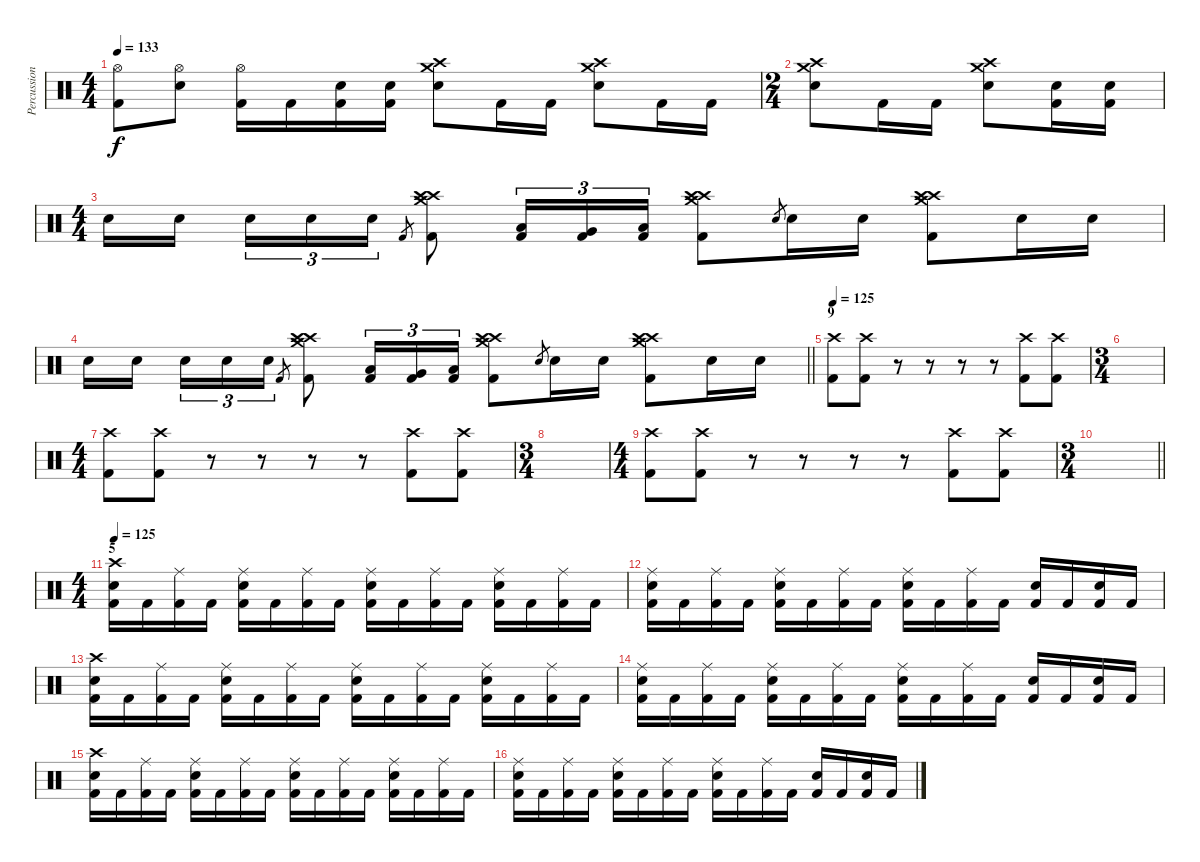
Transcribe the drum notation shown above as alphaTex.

\track ("Percussion" "Percussion") {instrument percussion}
\staff {score}
\articulation defaults
\ts (4 4)
\tempo 133
\clef neutral
\ks c
("Hi-Hat (open)" "Kick (hit) 2").8{dy f} ("Hi-Hat (open)" "Snare (hit) 2").8 ("Hi-Hat (open)" "Kick (hit) 2").16 "Kick (hit) 2".16 ("Snare (hit) 2" "Kick (hit) 2").16 ("Snare (hit) 2" "Kick (hit) 2").16 ("Crash medium (hit)" "Crash high (hit)" "Snare (hit) 2").8 "Kick (hit) 2".16 "Kick (hit) 2".16 ("Crash high (hit)" "Crash medium (hit)" "Snare (hit) 2").8 "Kick (hit) 2".16 "Kick (hit) 2".16 |
\ts (2 4)
("Crash high (hit)" "Crash medium (hit)" "Snare (hit) 2").8 "Kick (hit) 2".16 "Kick (hit) 2".16 ("Crash medium (hit)" "Crash high (hit)" "Snare (hit) 2").8 ("Snare (hit) 2" "Kick (hit) 2").16 ("Snare (hit) 2" "Kick (hit) 2").16 |
\ts (4 4)
"Snare (hit) 2".16 "Snare (hit) 2".16{beam splitsecondary} "Snare (hit) 2".16{tu (3 2)} "Snare (hit) 2".16{tu (3 2)} "Snare (hit) 2".16{tu (3 2)} "Kick (hit) 2".8{gr} ("Crash high (hit)" "Crash medium (hit)" "Crash high (hit)" "Kick (hit) 2").8 ("Low Tom (hit)" "Kick (hit) 2").16{tu (3 2)} ("Very Low Tom (hit)" "Kick (hit) 2").16{tu (3 2)} ("Low Floor Tom (hit)" "Kick (hit) 2").16{tu (3 2)} ("Crash high (hit)" "Crash medium (hit)" "Crash high (hit)" "Kick (hit) 2").8 "Snare (hit) 2".8{gr} "Snare (hit) 2".16 "Snare (hit) 2".16 ("Crash high (hit)" "Crash medium (hit)" "Crash high (hit)" "Kick (hit) 2").8 "Snare (hit) 2".16 "Snare (hit) 2".16 |
\barLineRight lightlight "Snare (hit) 2".16 "Snare (hit) 2".16{beam splitsecondary} "Snare (hit) 2".16{tu (3 2)} "Snare (hit) 2".16{tu (3 2)} "Snare (hit) 2".16{tu (3 2)} "Kick (hit) 2".8{gr}
("Crash high (hit)" "Crash medium (hit)" "Crash high (hit)" "Kick (hit) 2").8 ("Low Tom (hit)" "Kick (hit) 2").16{tu (3 2)} ("Very Low Tom (hit)" "Kick (hit) 2").16{tu (3 2)} ("Low Floor Tom (hit)" "Kick (hit) 2").16{tu (3 2)} ("Crash high (hit)" "Crash medium (hit)" "Crash high (hit)" "Kick (hit) 2").8 "Snare (hit) 2".8{gr} "Snare (hit) 2".16 "Snare (hit) 2".16 ("Crash high (hit)" "Crash medium (hit)" "Crash high (hit)" "Kick (hit) 2").8 "Snare (hit) 2".16 "Snare (hit) 2".16 |
\section ("" "9")
\tempo 125
("Crash high (hit)" "Kick (hit) 2").8 ("Crash high (hit)" "Kick (hit) 2").8 r.8 r.8 r.8 r.8 ("Crash high (hit)" "Kick (hit) 2").8 ("Crash high (hit)" "Kick (hit) 2").8 |
\ts (3 4)
|
\ts (4 4)
("Crash high (hit)" "Kick (hit) 2").8 ("Crash high (hit)" "Kick (hit) 2").8 r.8 r.8 r.8 r.8 ("Crash high (hit)" "Kick (hit) 2").8 ("Crash high (hit)" "Kick (hit) 2").8 |
\ts (3 4)
|
\ts (4 4)
("Crash high (hit)" "Kick (hit) 2").8 ("Crash high (hit)" "Kick (hit) 2").8 r.8 r.8 r.8 r.8 ("Crash high (hit)" "Kick (hit) 2").8 ("Crash high (hit)" "Kick (hit) 2").8 |
\ts (3 4)
\barLineRight lightlight
|
\ts (4 4)
\section ("" "5")
\tempo 125
("Crash high (hit)" "Snare (hit) 2" "Kick (hit) 2").16 "Kick (hit) 2".16 ("Ride (middle)" "Kick (hit) 2").16 "Kick (hit) 2".16 ("Ride (middle)" "Snare (hit) 2" "Kick (hit) 2").16 "Kick (hit) 2".16 ("Ride (middle)" "Kick (hit) 2").16 "Kick (hit) 2".16 ("Ride (middle)" "Snare (hit) 2" "Kick (hit) 2").16 "Kick (hit) 2".16 ("Ride (middle)" "Kick (hit) 2").16 "Kick (hit) 2".16 ("Ride (middle)" "Snare (hit) 2" "Kick (hit) 2").16 "Kick (hit) 2".16 ("Ride (middle)" "Kick (hit) 2").16 "Kick (hit) 2".16 |
("Ride (middle)" "Snare (hit) 2" "Kick (hit) 2").16 "Kick (hit) 2".16 ("Ride (middle)" "Kick (hit) 2").16 "Kick (hit) 2".16 ("Ride (middle)" "Snare (hit) 2" "Kick (hit) 2").16 "Kick (hit) 2".16 ("Ride (middle)" "Kick (hit) 2").16 "Kick (hit) 2".16 ("Ride (middle)" "Snare (hit) 2" "Kick (hit) 2").16 "Kick (hit) 2".16 ("Ride (middle)" "Kick (hit) 2").16 "Kick (hit) 2".16 ("Snare (hit) 2" "Kick (hit) 2").16 "Kick (hit) 2".16 ("Snare (hit) 2" "Kick (hit) 2").16 "Kick (hit) 2".16 |
("Crash high (hit)" "Snare (hit) 2" "Kick (hit) 2").16 "Kick (hit) 2".16 ("Ride (middle)" "Kick (hit) 2").16 "Kick (hit) 2".16 ("Ride (middle)" "Snare (hit) 2" "Kick (hit) 2").16 "Kick (hit) 2".16 ("Ride (middle)" "Kick (hit) 2").16 "Kick (hit) 2".16 ("Ride (middle)" "Snare (hit) 2" "Kick (hit) 2").16 "Kick (hit) 2".16 ("Ride (middle)" "Kick (hit) 2").16 "Kick (hit) 2".16 ("Ride (middle)" "Snare (hit) 2" "Kick (hit) 2").16 "Kick (hit) 2".16 ("Ride (middle)" "Kick (hit) 2").16 "Kick (hit) 2".16 |
("Ride (middle)" "Snare (hit) 2" "Kick (hit) 2").16 "Kick (hit) 2".16 ("Ride (middle)" "Kick (hit) 2").16 "Kick (hit) 2".16 ("Ride (middle)" "Snare (hit) 2" "Kick (hit) 2").16 "Kick (hit) 2".16 ("Ride (middle)" "Kick (hit) 2").16 "Kick (hit) 2".16 ("Ride (middle)" "Snare (hit) 2" "Kick (hit) 2").16 "Kick (hit) 2".16 ("Ride (middle)" "Kick (hit) 2").16 "Kick (hit) 2".16 ("Snare (hit) 2" "Kick (hit) 2").16 "Kick (hit) 2".16 ("Snare (hit) 2" "Kick (hit) 2").16 "Kick (hit) 2".16 |
("Crash high (hit)" "Snare (hit) 2" "Kick (hit) 2").16 "Kick (hit) 2".16 ("Ride (middle)" "Kick (hit) 2").16 "Kick (hit) 2".16 ("Ride (middle)" "Snare (hit) 2" "Kick (hit) 2").16 "Kick (hit) 2".16 ("Ride (middle)" "Kick (hit) 2").16 "Kick (hit) 2".16 ("Ride (middle)" "Snare (hit) 2" "Kick (hit) 2").16 "Kick (hit) 2".16 ("Ride (middle)" "Kick (hit) 2").16 "Kick (hit) 2".16 ("Ride (middle)" "Snare (hit) 2" "Kick (hit) 2").16 "Kick (hit) 2".16 ("Ride (middle)" "Kick (hit) 2").16 "Kick (hit) 2".16 |
("Ride (middle)" "Snare (hit) 2" "Kick (hit) 2").16 "Kick (hit) 2".16 ("Ride (middle)" "Kick (hit) 2").16 "Kick (hit) 2".16 ("Ride (middle)" "Snare (hit) 2" "Kick (hit) 2").16 "Kick (hit) 2".16 ("Ride (middle)" "Kick (hit) 2").16 "Kick (hit) 2".16 ("Ride (middle)" "Snare (hit) 2" "Kick (hit) 2").16 "Kick (hit) 2".16 ("Ride (middle)" "Kick (hit) 2").16 "Kick (hit) 2".16 ("Snare (hit) 2" "Kick (hit) 2").16 "Kick (hit) 2".16 ("Snare (hit) 2" "Kick (hit) 2").16 "Kick (hit) 2".16
